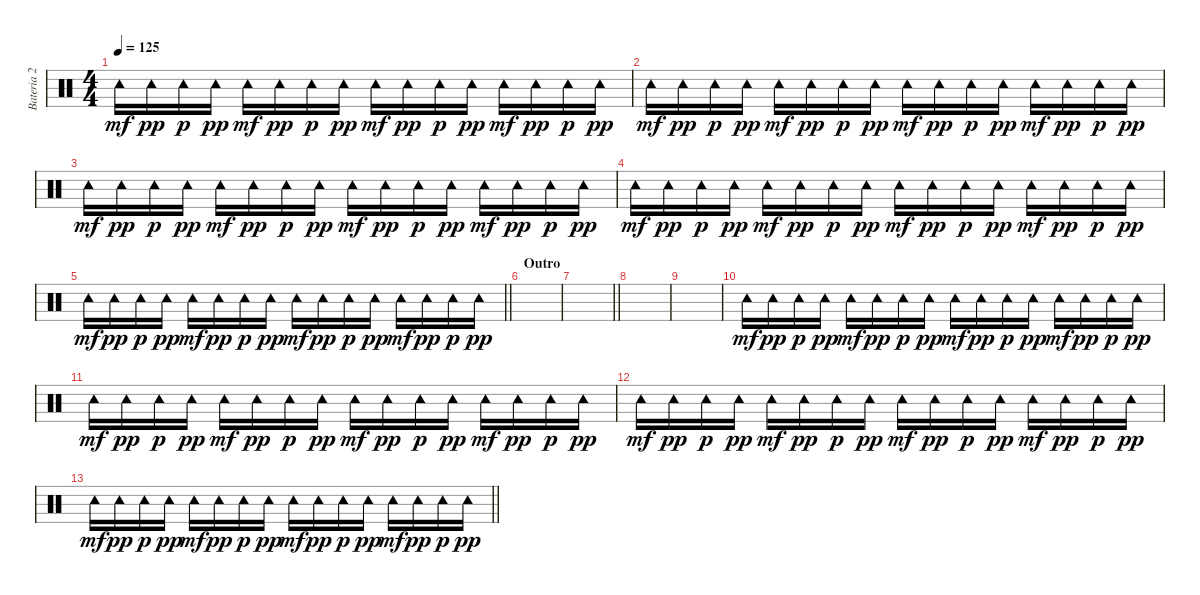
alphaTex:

\track ("Bateria 2" "Bateria 2") {instrument percussion}
\staff {score}
\articulation defaults
\ts (4 4)
\tempo 125
\clef neutral
\ks c "Tambourine (hit)".16{dy mf} "Tambourine (hit)".16{dy pp} "Tambourine (hit)".16{dy p} "Tambourine (hit)".16{dy pp} "Tambourine (hit)".16{dy mf} "Tambourine (hit)".16{dy pp} "Tambourine (hit)".16{dy p} "Tambourine (hit)".16{dy pp} "Tambourine (hit)".16{dy mf} "Tambourine (hit)".16{dy pp} "Tambourine (hit)".16{dy p} "Tambourine (hit)".16{dy pp} "Tambourine (hit)".16{dy mf} "Tambourine (hit)".16{dy pp} "Tambourine (hit)".16{dy p} "Tambourine (hit)".16{dy pp}
|
"Tambourine (hit)".16{dy mf} "Tambourine (hit)".16{dy pp} "Tambourine (hit)".16{dy p} "Tambourine (hit)".16{dy pp} "Tambourine (hit)".16{dy mf} "Tambourine (hit)".16{dy pp} "Tambourine (hit)".16{dy p} "Tambourine (hit)".16{dy pp} "Tambourine (hit)".16{dy mf} "Tambourine (hit)".16{dy pp} "Tambourine (hit)".16{dy p} "Tambourine (hit)".16{dy pp} "Tambourine (hit)".16{dy mf} "Tambourine (hit)".16{dy pp} "Tambourine (hit)".16{dy p} "Tambourine (hit)".16{dy pp} |
"Tambourine (hit)".16{dy mf} "Tambourine (hit)".16{dy pp} "Tambourine (hit)".16{dy p} "Tambourine (hit)".16{dy pp} "Tambourine (hit)".16{dy mf} "Tambourine (hit)".16{dy pp} "Tambourine (hit)".16{dy p} "Tambourine (hit)".16{dy pp} "Tambourine (hit)".16{dy mf} "Tambourine (hit)".16{dy pp} "Tambourine (hit)".16{dy p} "Tambourine (hit)".16{dy pp} "Tambourine (hit)".16{dy mf} "Tambourine (hit)".16{dy pp} "Tambourine (hit)".16{dy p} "Tambourine (hit)".16{dy pp} |
"Tambourine (hit)".16{dy mf} "Tambourine (hit)".16{dy pp} "Tambourine (hit)".16{dy p} "Tambourine (hit)".16{dy pp} "Tambourine (hit)".16{dy mf} "Tambourine (hit)".16{dy pp} "Tambourine (hit)".16{dy p} "Tambourine (hit)".16{dy pp} "Tambourine (hit)".16{dy mf} "Tambourine (hit)".16{dy pp} "Tambourine (hit)".16{dy p} "Tambourine (hit)".16{dy pp} "Tambourine (hit)".16{dy mf} "Tambourine (hit)".16{dy pp} "Tambourine (hit)".16{dy p} "Tambourine (hit)".16{dy pp} |
\barLineRight lightlight "Tambourine (hit)".16{dy mf} "Tambourine (hit)".16{dy pp} "Tambourine (hit)".16{dy p} "Tambourine (hit)".16{dy pp} "Tambourine (hit)".16{dy mf} "Tambourine (hit)".16{dy pp} "Tambourine (hit)".16{dy p} "Tambourine (hit)".16{dy pp} "Tambourine (hit)".16{dy mf} "Tambourine (hit)".16{dy pp} "Tambourine (hit)".16{dy p} "Tambourine (hit)".16{dy pp} "Tambourine (hit)".16{dy mf} "Tambourine (hit)".16{dy pp} "Tambourine (hit)".16{dy p} "Tambourine (hit)".16{dy pp}
|
\section ("" "Outro")
|
\barLineRight lightlight
|
|
|
"Tambourine (hit)".16{dy mf} "Tambourine (hit)".16{dy pp} "Tambourine (hit)".16{dy p} "Tambourine (hit)".16{dy pp} "Tambourine (hit)".16{dy mf} "Tambourine (hit)".16{dy pp} "Tambourine (hit)".16{dy p} "Tambourine (hit)".16{dy pp} "Tambourine (hit)".16{dy mf} "Tambourine (hit)".16{dy pp} "Tambourine (hit)".16{dy p} "Tambourine (hit)".16{dy pp} "Tambourine (hit)".16{dy mf} "Tambourine (hit)".16{dy pp} "Tambourine (hit)".16{dy p} "Tambourine (hit)".16{dy pp} |
"Tambourine (hit)".16{dy mf} "Tambourine (hit)".16{dy pp} "Tambourine (hit)".16{dy p} "Tambourine (hit)".16{dy pp} "Tambourine (hit)".16{dy mf} "Tambourine (hit)".16{dy pp} "Tambourine (hit)".16{dy p} "Tambourine (hit)".16{dy pp} "Tambourine (hit)".16{dy mf} "Tambourine (hit)".16{dy pp} "Tambourine (hit)".16{dy p} "Tambourine (hit)".16{dy pp} "Tambourine (hit)".16{dy mf} "Tambourine (hit)".16{dy pp} "Tambourine (hit)".16{dy p} "Tambourine (hit)".16{dy pp} |
"Tambourine (hit)".16{dy mf} "Tambourine (hit)".16{dy pp} "Tambourine (hit)".16{dy p} "Tambourine (hit)".16{dy pp} "Tambourine (hit)".16{dy mf} "Tambourine (hit)".16{dy pp} "Tambourine (hit)".16{dy p} "Tambourine (hit)".16{dy pp} "Tambourine (hit)".16{dy mf} "Tambourine (hit)".16{dy pp} "Tambourine (hit)".16{dy p} "Tambourine (hit)".16{dy pp} "Tambourine (hit)".16{dy mf} "Tambourine (hit)".16{dy pp} "Tambourine (hit)".16{dy p} "Tambourine (hit)".16{dy pp} |
\barLineRight lightlight "Tambourine (hit)".16{dy mf} "Tambourine (hit)".16{dy pp} "Tambourine (hit)".16{dy p} "Tambourine (hit)".16{dy pp} "Tambourine (hit)".16{dy mf} "Tambourine (hit)".16{dy pp} "Tambourine (hit)".16{dy p} "Tambourine (hit)".16{dy pp} "Tambourine (hit)".16{dy mf} "Tambourine (hit)".16{dy pp} "Tambourine (hit)".16{dy p} "Tambourine (hit)".16{dy pp} "Tambourine (hit)".16{dy mf} "Tambourine (hit)".16{dy pp} "Tambourine (hit)".16{dy p} "Tambourine (hit)".16{dy pp}
